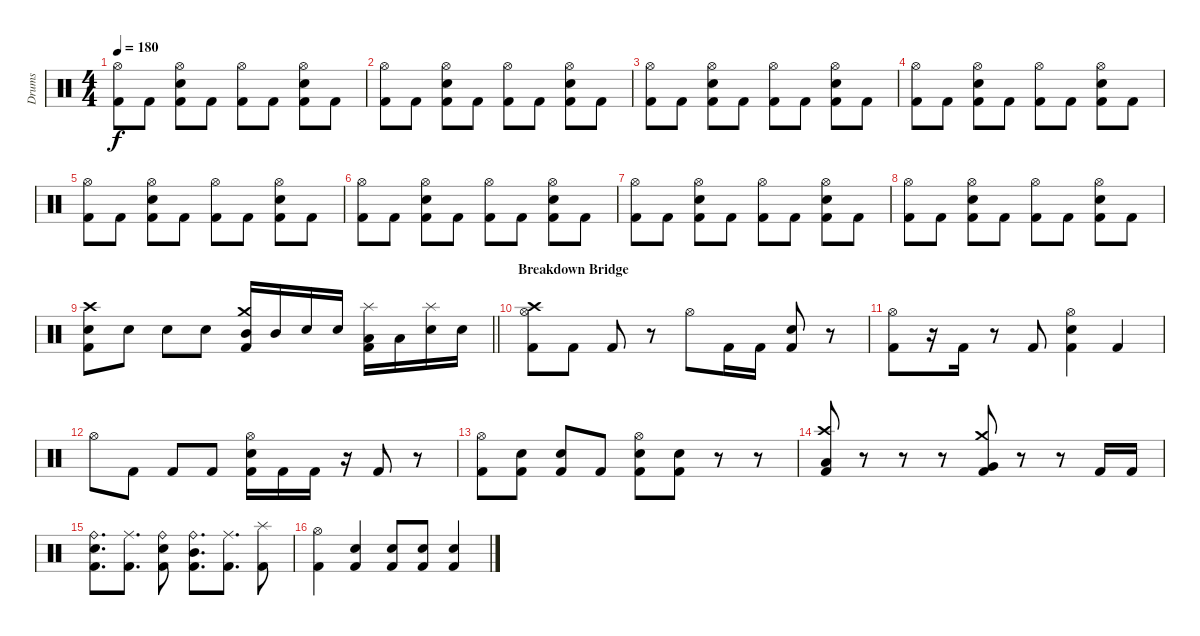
\track ("Drums" "Drums") {instrument percussion}
\staff {score}
\articulation defaults
\ts (4 4)
\tempo 180
\clef neutral
\ks c
("Hi-Hat (open)" "Kick (hit) 2").8{dy f} "Kick (hit) 2".8 ("Hi-Hat (open)" "Snare (hit) 2" "Kick (hit) 2").8 "Kick (hit) 2".8 ("Hi-Hat (open)" "Kick (hit) 2").8 "Kick (hit) 2".8 ("Hi-Hat (open)" "Snare (hit) 2" "Kick (hit) 2").8 "Kick (hit) 2".8 |
("Hi-Hat (open)" "Kick (hit) 2").8 "Kick (hit) 2".8 ("Hi-Hat (open)" "Snare (hit) 2" "Kick (hit) 2").8 "Kick (hit) 2".8 ("Hi-Hat (open)" "Kick (hit) 2").8 "Kick (hit) 2".8 ("Hi-Hat (open)" "Snare (hit) 2" "Kick (hit) 2").8 "Kick (hit) 2".8 |
("Hi-Hat (open)" "Kick (hit) 2").8 "Kick (hit) 2".8 ("Hi-Hat (open)" "Snare (hit) 2" "Kick (hit) 2").8 "Kick (hit) 2".8 ("Hi-Hat (open)" "Kick (hit) 2").8 "Kick (hit) 2".8 ("Hi-Hat (open)" "Snare (hit) 2" "Kick (hit) 2").8 "Kick (hit) 2".8 |
("Hi-Hat (open)" "Kick (hit) 2").8 "Kick (hit) 2".8 ("Hi-Hat (open)" "Snare (hit) 2" "Kick (hit) 2").8 "Kick (hit) 2".8 ("Hi-Hat (open)" "Kick (hit) 2").8 "Kick (hit) 2".8 ("Hi-Hat (open)" "Snare (hit) 2" "Kick (hit) 2").8 "Kick (hit) 2".8 |
("Hi-Hat (open)" "Kick (hit) 2").8 "Kick (hit) 2".8 ("Hi-Hat (open)" "Snare (hit) 2" "Kick (hit) 2").8 "Kick (hit) 2".8 ("Hi-Hat (open)" "Kick (hit) 2").8 "Kick (hit) 2".8 ("Hi-Hat (open)" "Snare (hit) 2" "Kick (hit) 2").8 "Kick (hit) 2".8 |
("Hi-Hat (open)" "Kick (hit) 2").8 "Kick (hit) 2".8 ("Hi-Hat (open)" "Snare (hit) 2" "Kick (hit) 2").8 "Kick (hit) 2".8 ("Hi-Hat (open)" "Kick (hit) 2").8 "Kick (hit) 2".8 ("Hi-Hat (open)" "Snare (hit) 2" "Kick (hit) 2").8 "Kick (hit) 2".8 |
("Hi-Hat (open)" "Kick (hit) 2").8 "Kick (hit) 2".8 ("Hi-Hat (open)" "Snare (hit) 2" "Kick (hit) 2").8 "Kick (hit) 2".8 ("Hi-Hat (open)" "Kick (hit) 2").8 "Kick (hit) 2".8 ("Hi-Hat (open)" "Snare (hit) 2" "Kick (hit) 2").8 "Kick (hit) 2".8 |
("Hi-Hat (open)" "Kick (hit) 2").8 "Kick (hit) 2".8 ("Hi-Hat (open)" "Snare (hit) 2" "Kick (hit) 2").8 "Kick (hit) 2".8 ("Hi-Hat (open)" "Kick (hit) 2").8 "Kick (hit) 2".8 ("Hi-Hat (open)" "Snare (hit) 2" "Kick (hit) 2").8 "Kick (hit) 2".8 |
\barLineRight lightlight
("Crash high (hit)" "Snare (hit) 2" "Kick (hit) 2").8 "Snare (hit) 2".8 "Snare (hit) 2".8 "Snare (hit) 2".8 ("Crash medium (hit)" "Mid Tom (hit)" "Kick (hit) 2").16 "Mid Tom (hit)".16 "Snare (hit) 2".16 "Snare (hit) 2".16 ("Splash (hit)" "Low Tom (hit)" "Kick (hit) 2").16 "Low Tom (hit)".16 ("Splash (hit)" "Snare (hit) 2").16 "Snare (hit) 2".16 |
\section ("" "Breakdown Bridge")
("Crash high (hit)" "Hi-Hat (open)" "Kick (hit) 2").8 "Kick (hit) 2".8 "Kick (hit) 2".8 r.8 "Hi-Hat (open)".8 "Kick (hit) 2".16 "Kick (hit) 2".16 ("Snare (hit) 2" "Kick (hit) 2").8 r.8 |
("Hi-Hat (open)" "Kick (hit) 2").8 r.16 "Kick (hit) 2".16 r.8 "Kick (hit) 2".8 ("Hi-Hat (open)" "Snare (hit) 2" "Kick (hit) 2").4 "Kick (hit) 2".4 |
"Hi-Hat (open)".8 "Kick (hit) 2".8 "Kick (hit) 2".8 "Kick (hit) 2".8 ("Hi-Hat (open)" "Snare (hit) 2" "Kick (hit) 2").16 "Kick (hit) 2".16 "Kick (hit) 2".16 r.16 "Kick (hit) 2".8 r.8 |
("Hi-Hat (open)" "Kick (hit) 2").8 ("Snare (hit) 2" "Kick (hit) 2").8 ("Snare (hit) 2" "Kick (hit) 2").8 "Kick (hit) 2".8 ("Hi-Hat (open)" "Snare (hit) 2" "Kick (hit) 2").8 ("Snare (hit) 2" "Kick (hit) 2").8 r.8 r.8 |
("Crash high (hit)" "Low Floor Tom (hit)" "Kick (hit) 2").8 r.8 r.8 r.8 ("Crash medium (hit)" "Very Low Tom (hit)" "Kick (hit) 2").8 r.8 r.8 "Kick (hit) 2".16 "Kick (hit) 2".16 |
("Ride (bell)" "Snare (hit) 2" "Kick (hit) 2").8{d} ("Ride (middle)" "Kick (hit) 2").8{d} ("Ride (bell)" "Snare (hit) 2" "Kick (hit) 2").8 ("Ride (bell)" "Mid Tom (hit)" "Kick (hit) 2").8{d} ("Ride (middle)" "Kick (hit) 2").8{d} ("Splash (hit)" "Kick (hit) 2").8 |
("Hi-Hat (open)" "Kick (hit) 2").4 ("Snare (hit) 2" "Kick (hit) 2").4 ("Snare (hit) 2" "Kick (hit) 2").8 ("Snare (hit) 2" "Kick (hit) 2").8 ("Snare (hit) 2" "Kick (hit) 2").4
